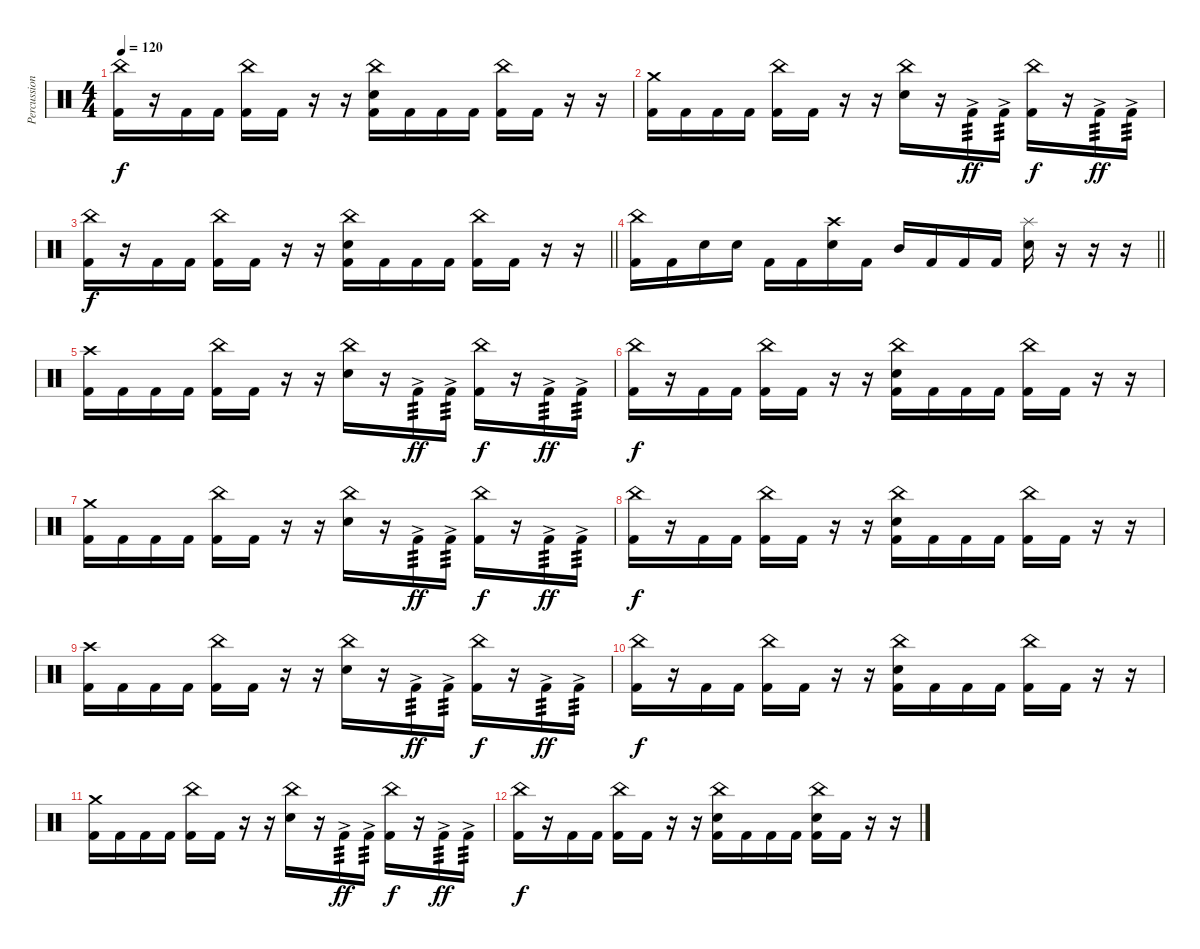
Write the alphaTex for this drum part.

\track ("Percussion" "Percussion") {instrument percussion}
\staff {score}
\articulation defaults
\ts (4 4)
\tempo 120
\clef neutral
\ks c
("China (hit)" "Kick (hit) 2").16{dy f} r.16 "Kick (hit) 2".16 "Kick (hit) 2".16 ("China (hit)" "Kick (hit) 2").16 "Kick (hit) 2".16 r.16 r.16 ("China (hit)" "Electric Snare (hit)" "Kick (hit) 2").16 "Kick (hit) 2".16 "Kick (hit) 2".16 "Kick (hit) 2".16 ("China (hit)" "Kick (hit) 2").16 "Kick (hit) 2".16 r.16 r.16 |
("Crash medium (hit)" "Kick (hit) 2").16 "Kick (hit) 2".16 "Kick (hit) 2".16 "Kick (hit) 2".16 ("China (hit)" "Kick (hit) 2").16 "Kick (hit) 2".16 r.16 r.16 ("China (hit)" "Electric Snare (hit)").16 r.16 "Kick (hit) 2"{ac}.16{tp 3 dy ff} "Kick (hit) 2"{ac}.16{tp 3} ("China (hit)" "Kick (hit) 2").16{dy f} r.16 "Kick (hit) 2"{ac}.16{tp 3 dy ff} "Kick (hit) 2"{ac}.16{tp 3} |
\barLineRight lightlight
("China (hit)" "Kick (hit) 2").16{dy f} r.16 "Kick (hit) 2".16 "Kick (hit) 2".16 ("China (hit)" "Kick (hit) 2").16 "Kick (hit) 2".16 r.16 r.16 ("China (hit)" "Electric Snare (hit)" "Kick (hit) 2").16 "Kick (hit) 2".16 "Kick (hit) 2".16 "Kick (hit) 2".16 ("China (hit)" "Kick (hit) 2").16 "Kick (hit) 2".16 r.16 r.16 |
\section ("" "")
\barLineRight lightlight
("China (hit)" "Kick (hit) 2").16 "Kick (hit) 2".16 "Electric Snare (hit)".16 "Electric Snare (hit)".16 "Kick (hit) 2".16 "Kick (hit) 2".16 ("Crash high (hit)" "Electric Snare (hit)").16 "Kick (hit) 2".16 "Mid Tom (hit)".16 "Kick (hit) 2".16 "Kick (hit) 2".16 "Kick (hit) 2".16 ("Splash (hit)" "Electric Snare (hit)").16 r.16 r.16 r.16 |
\section ("" "")
("Crash high (hit)" "Kick (hit) 2").16 "Kick (hit) 2".16 "Kick (hit) 2".16 "Kick (hit) 2".16 ("China (hit)" "Kick (hit) 2").16 "Kick (hit) 2".16 r.16 r.16 ("China (hit)" "Electric Snare (hit)").16 r.16 "Kick (hit) 2"{ac}.16{tp 3 dy ff} "Kick (hit) 2"{ac}.16{tp 3} ("China (hit)" "Kick (hit) 2").16{dy f} r.16 "Kick (hit) 2"{ac}.16{tp 3 dy ff} "Kick (hit) 2"{ac}.16{tp 3} |
("China (hit)" "Kick (hit) 2").16{dy f} r.16 "Kick (hit) 2".16 "Kick (hit) 2".16 ("China (hit)" "Kick (hit) 2").16 "Kick (hit) 2".16 r.16 r.16 ("China (hit)" "Electric Snare (hit)" "Kick (hit) 2").16 "Kick (hit) 2".16 "Kick (hit) 2".16 "Kick (hit) 2".16 ("China (hit)" "Kick (hit) 2").16 "Kick (hit) 2".16 r.16 r.16 |
("Crash medium (hit)" "Kick (hit) 2").16 "Kick (hit) 2".16 "Kick (hit) 2".16 "Kick (hit) 2".16 ("China (hit)" "Kick (hit) 2").16 "Kick (hit) 2".16 r.16 r.16 ("China (hit)" "Electric Snare (hit)").16 r.16 "Kick (hit) 2"{ac}.16{tp 3 dy ff} "Kick (hit) 2"{ac}.16{tp 3} ("China (hit)" "Kick (hit) 2").16{dy f} r.16 "Kick (hit) 2"{ac}.16{tp 3 dy ff} "Kick (hit) 2"{ac}.16{tp 3} |
("China (hit)" "Kick (hit) 2").16{dy f} r.16 "Kick (hit) 2".16 "Kick (hit) 2".16 ("China (hit)" "Kick (hit) 2").16 "Kick (hit) 2".16 r.16 r.16 ("China (hit)" "Electric Snare (hit)" "Kick (hit) 2").16 "Kick (hit) 2".16 "Kick (hit) 2".16 "Kick (hit) 2".16 ("China (hit)" "Kick (hit) 2").16 "Kick (hit) 2".16 r.16 r.16 |
("Crash high (hit)" "Kick (hit) 2").16 "Kick (hit) 2".16 "Kick (hit) 2".16 "Kick (hit) 2".16 ("China (hit)" "Kick (hit) 2").16 "Kick (hit) 2".16 r.16 r.16 ("China (hit)" "Electric Snare (hit)").16 r.16 "Kick (hit) 2"{ac}.16{tp 3 dy ff} "Kick (hit) 2"{ac}.16{tp 3} ("China (hit)" "Kick (hit) 2").16{dy f} r.16 "Kick (hit) 2"{ac}.16{tp 3 dy ff} "Kick (hit) 2"{ac}.16{tp 3} |
("China (hit)" "Kick (hit) 2").16{dy f} r.16 "Kick (hit) 2".16 "Kick (hit) 2".16 ("China (hit)" "Kick (hit) 2").16 "Kick (hit) 2".16 r.16 r.16 ("China (hit)" "Electric Snare (hit)" "Kick (hit) 2").16 "Kick (hit) 2".16 "Kick (hit) 2".16 "Kick (hit) 2".16 ("China (hit)" "Kick (hit) 2").16 "Kick (hit) 2".16 r.16 r.16 |
("Crash medium (hit)" "Kick (hit) 2").16 "Kick (hit) 2".16 "Kick (hit) 2".16 "Kick (hit) 2".16 ("China (hit)" "Kick (hit) 2").16 "Kick (hit) 2".16 r.16 r.16 ("China (hit)" "Electric Snare (hit)").16 r.16 "Kick (hit) 2"{ac}.16{tp 3 dy ff} "Kick (hit) 2"{ac}.16{tp 3} ("China (hit)" "Kick (hit) 2").16{dy f} r.16 "Kick (hit) 2"{ac}.16{tp 3 dy ff} "Kick (hit) 2"{ac}.16{tp 3} |
("China (hit)" "Kick (hit) 2").16{dy f} r.16 "Kick (hit) 2".16 "Kick (hit) 2".16 ("China (hit)" "Kick (hit) 2").16 "Kick (hit) 2".16 r.16 r.16 ("China (hit)" "Electric Snare (hit)" "Kick (hit) 2").16 "Kick (hit) 2".16 "Kick (hit) 2".16 "Kick (hit) 2".16 ("China (hit)" "Electric Snare (hit)" "Kick (hit) 2").16 "Kick (hit) 2".16 r.16 r.16
